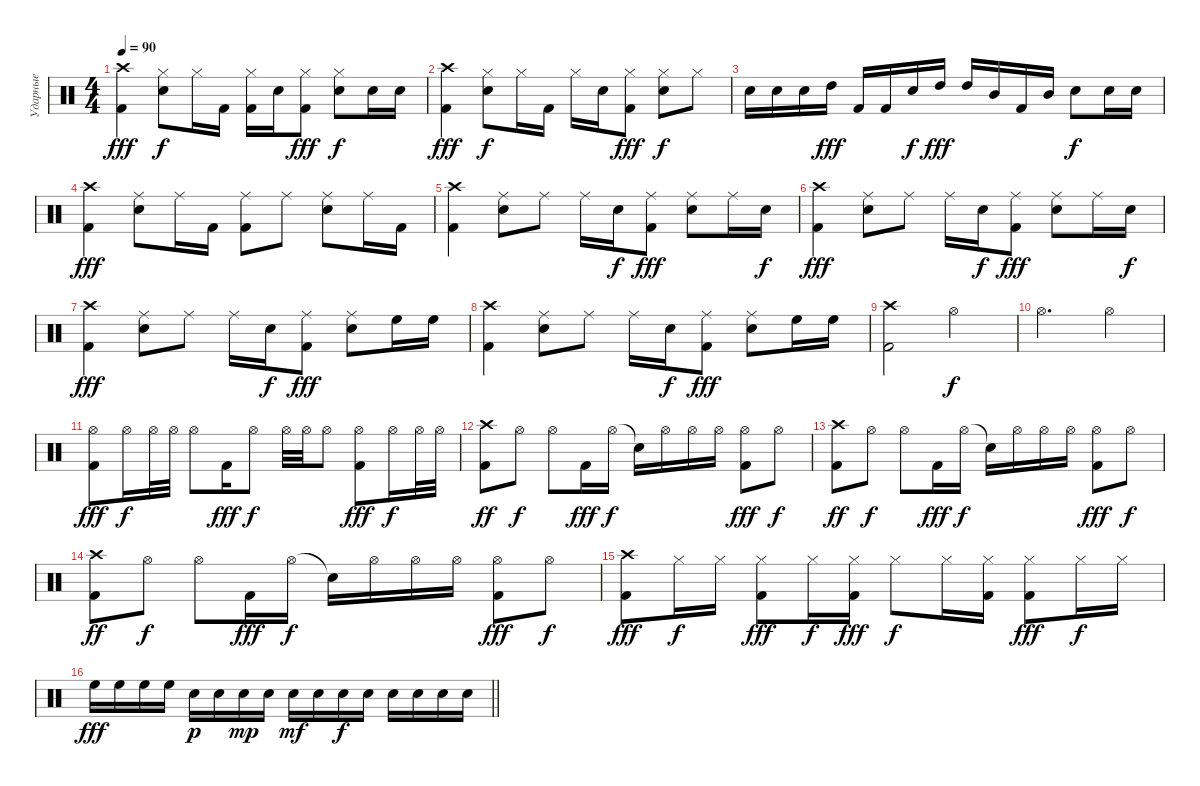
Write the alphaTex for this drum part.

\track ("Ударные" "Ударные") {instrument percussion}
\staff {score}
\articulation defaults
\ts (4 4)
\tempo 90
\clef neutral
\ks c
("Kick (hit) 2" "Crash high (hit)").4{dy fff} ("Snare (hit) 2" "Hi-Hat (closed)").8{dy f} "Hi-Hat (closed)".16 "Kick (hit) 2".16 ("Kick (hit) 2" "Hi-Hat (closed)").16 "Snare (hit) 2".16 ("Kick (hit) 2" "Hi-Hat (closed)").8{dy fff} ("Snare (hit) 2" "Hi-Hat (closed)").8{dy f} "Snare (hit) 2".16 "Snare (hit) 2".16 |
("Kick (hit) 2" "Crash high (hit)").4{dy fff} ("Snare (hit) 2" "Hi-Hat (closed)").8{dy f} "Hi-Hat (closed)".16 "Kick (hit) 2".16 "Hi-Hat (closed)".16 "Snare (hit) 2".16 ("Kick (hit) 2" "Hi-Hat (closed)").8{dy fff} ("Snare (hit) 2" "Hi-Hat (closed)").8{dy f} "Hi-Hat (closed)".8 |
"Snare (hit) 2".16 "Snare (hit) 2".16 "Snare (hit) 2".16 "High Tom (hit)".16{dy fff} "Kick (hit) 2".16 "Kick (hit) 2".16 "Snare (hit) 2".16{dy f} "High Tom (hit)".16{dy fff} "High Tom (hit)".16 "Mid Tom (hit)".16 "Kick (hit) 2".16 "Mid Tom (hit)".16 "Snare (hit) 2".8{dy f} "Snare (hit) 2".16 "Snare (hit) 2".16 |
("Kick (hit) 2" "Crash high (hit)").4{dy fff} ("Snare (hit) 2" "Ride (middle)").8 "Ride (middle)".16 "Kick (hit) 2".16 ("Kick (hit) 2" "Ride (middle)").8 "Ride (middle)".8 ("Snare (hit) 2" "Ride (middle)").8 "Ride (middle)".16 "Kick (hit) 2".16 |
("Kick (hit) 2" "Crash high (hit)").4 ("Snare (hit) 2" "Ride (middle)").8 "Ride (middle)".8 "Ride (middle)".16 "Snare (hit) 2".16{dy f} ("Kick (hit) 2" "Ride (middle)").8{dy fff} ("Snare (hit) 2" "Ride (middle)").8 "Ride (middle)".16 "Snare (hit) 2".16{dy f} |
("Kick (hit) 2" "Crash high (hit)").4{dy fff} ("Snare (hit) 2" "Ride (middle)").8 "Ride (middle)".8 "Ride (middle)".16 "Snare (hit) 2".16{dy f} ("Kick (hit) 2" "Ride (middle)").8{dy fff} ("Snare (hit) 2" "Ride (middle)").8 "Ride (middle)".16 "Snare (hit) 2".16{dy f} |
("Kick (hit) 2" "Crash high (hit)").4{dy fff} ("Snare (hit) 2" "Ride (middle)").8 "Ride (middle)".8 "Ride (middle)".16 "Snare (hit) 2".16{dy f} ("Kick (hit) 2" "Ride (middle)").8{dy fff} ("Snare (hit) 2" "Ride (middle)").8 "High Floor Tom (hit)".16 "High Floor Tom (hit)".16 |
("Kick (hit) 2" "Crash high (hit)").4 ("Snare (hit) 2" "Ride (middle)").8 "Ride (middle)".8 "Ride (middle)".16 "Snare (hit) 2".16{dy f} ("Kick (hit) 2" "Ride (middle)").8{dy fff} ("Snare (hit) 2" "Ride (middle)").8 "High Floor Tom (hit)".16 "High Floor Tom (hit)".16 |
("Kick (hit) 2" "Crash high (hit)").2 "Hi-Hat (open)".2{dy f} |
"Hi-Hat (open)".2{d} "Hi-Hat (open)".4 |
("Kick (hit) 2" "Hi-Hat (open)").8{dy fff} "Hi-Hat (open)".16{dy f} "Hi-Hat (open)".32 "Hi-Hat (open)".32 "Hi-Hat (open)".8 "Kick (hit) 2".16{dy fff} "Hi-Hat (open)".8{dy f} "Hi-Hat (open)".32 "Hi-Hat (open)".32 "Hi-Hat (open)".8 ("Kick (hit) 2" "Hi-Hat (open)").8{dy fff} "Hi-Hat (open)".16{dy f} "Hi-Hat (open)".32 "Hi-Hat (open)".32 |
("Kick (hit) 2" "Crash high (hit)").8{dy ff} "Hi-Hat (open)".8{dy f} "Hi-Hat (open)".8 "Kick (hit) 2".16{dy fff} "Hi-Hat (open)".16{dy f} "Snare (hit)"{t}.16 "Hi-Hat (open)".16 "Hi-Hat (open)".16 "Hi-Hat (open)".16 ("Kick (hit) 2" "Hi-Hat (open)").8{dy fff} "Hi-Hat (open)".8{dy f} |
("Kick (hit) 2" "Crash high (hit)").8{dy ff} "Hi-Hat (open)".8{dy f} "Hi-Hat (open)".8 "Kick (hit) 2".16{dy fff} "Hi-Hat (open)".16{dy f} "Snare (hit)"{t}.16 "Hi-Hat (open)".16 "Hi-Hat (open)".16 "Hi-Hat (open)".16 ("Kick (hit) 2" "Hi-Hat (open)").8{dy fff} "Hi-Hat (open)".8{dy f} |
("Kick (hit) 2" "Crash high (hit)").8{dy ff} "Hi-Hat (open)".8{dy f} "Hi-Hat (open)".8 "Kick (hit) 2".16{dy fff} "Hi-Hat (open)".16{dy f} "Snare (hit)"{t}.16 "Hi-Hat (open)".16 "Hi-Hat (open)".16 "Hi-Hat (open)".16 ("Kick (hit) 2" "Hi-Hat (open)").8{dy fff} "Hi-Hat (open)".8{dy f} |
("Kick (hit) 2" "Crash high (hit)").8{dy fff} "Hi-Hat (closed)".16{dy f} "Hi-Hat (closed)".16 ("Kick (hit) 2" "Hi-Hat (closed)").8{dy fff} "Hi-Hat (closed)".16{dy f} ("Kick (hit) 2" "Hi-Hat (closed)").16{dy fff} "Hi-Hat (closed)".8{dy f} "Hi-Hat (closed)".16 ("Kick (hit) 2" "Hi-Hat (closed)").16 ("Kick (hit) 2" "Hi-Hat (closed)").8{dy fff} "Hi-Hat (closed)".16{dy f} "Hi-Hat (closed)".16 |
\barLineRight lightlight "High Floor Tom (hit)".16{dy fff} "High Floor Tom (hit)".16 "High Floor Tom (hit)".16 "High Floor Tom (hit)".16 "Snare (hit) 2".16{dy p} "Snare (hit) 2".16 "Snare (hit) 2".16{dy mp} "Snare (hit) 2".16 "Snare (hit) 2".16{dy mf} "Snare (hit) 2".16 "Snare (hit) 2".16{dy f} "Snare (hit) 2".16 "Snare (hit) 2".16 "Snare (hit) 2".16 "Snare (hit) 2".16 "Snare (hit) 2".16
